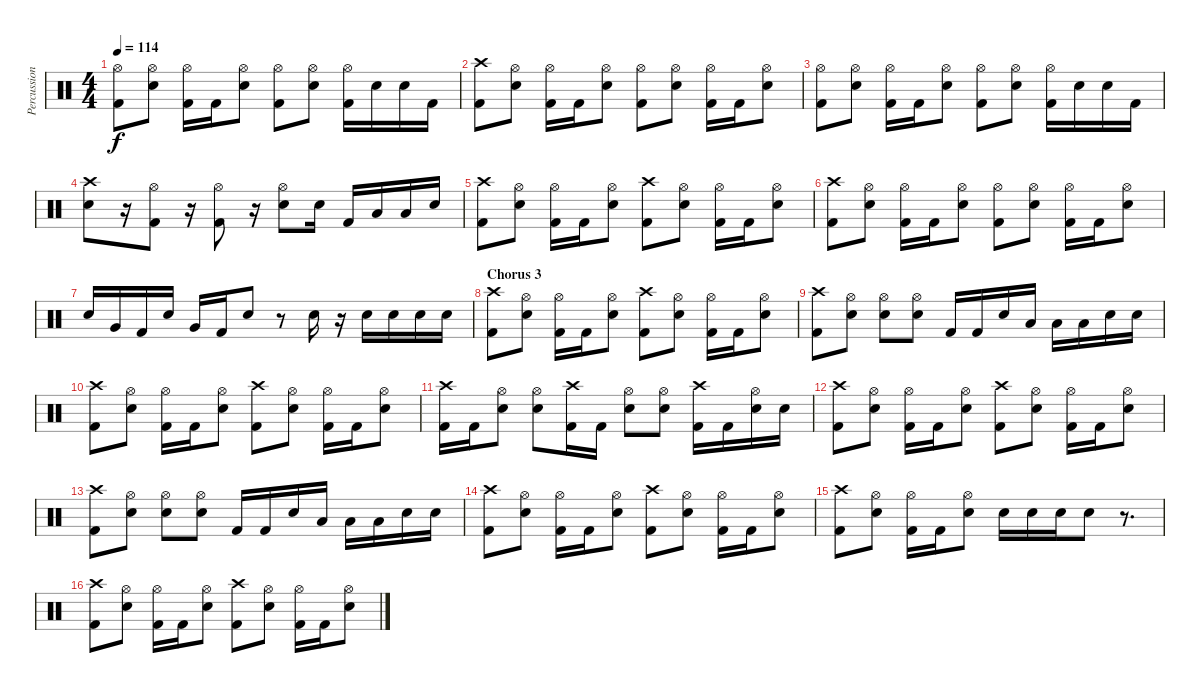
\track ("Percussion" "Percussion") {instrument percussion}
\staff {score}
\articulation defaults
\ts (4 4)
\tempo 114
\clef neutral
\ks c
("Hi-Hat (open)" "Kick (hit) 2").8{dy f} ("Hi-Hat (open)" "Electric Snare (hit)").8 ("Hi-Hat (open)" "Kick (hit) 2").16 "Kick (hit) 2".16 ("Hi-Hat (open)" "Electric Snare (hit)").8 ("Hi-Hat (open)" "Kick (hit) 2").8 ("Hi-Hat (open)" "Electric Snare (hit)").8 ("Hi-Hat (open)" "Kick (hit) 2").16 "Electric Snare (hit)".16 "Electric Snare (hit)".16 "Kick (hit) 2".16 |
("Crash high (hit)" "Kick (hit) 2").8 ("Hi-Hat (open)" "Electric Snare (hit)").8 ("Hi-Hat (open)" "Kick (hit) 2").16 "Kick (hit) 2".16 ("Hi-Hat (open)" "Electric Snare (hit)").8 ("Hi-Hat (open)" "Kick (hit) 2").8 ("Hi-Hat (open)" "Electric Snare (hit)").8 ("Hi-Hat (open)" "Kick (hit) 2").16 "Kick (hit) 2".16 ("Hi-Hat (open)" "Electric Snare (hit)").8 |
("Hi-Hat (open)" "Kick (hit) 2").8 ("Hi-Hat (open)" "Electric Snare (hit)").8 ("Hi-Hat (open)" "Kick (hit) 2").16 "Kick (hit) 2".16 ("Hi-Hat (open)" "Electric Snare (hit)").8 ("Hi-Hat (open)" "Kick (hit) 2").8 ("Hi-Hat (open)" "Electric Snare (hit)").8 ("Hi-Hat (open)" "Kick (hit) 2").16 "Electric Snare (hit)".16 "Electric Snare (hit)".16 "Kick (hit) 2".16 |
("Crash high (hit)" "Electric Snare (hit)").8 r.16 ("Hi-Hat (open)" "Kick (hit) 2").8 r.16 ("Hi-Hat (open)" "Kick (hit) 2").8 r.16 ("Hi-Hat (open)" "Electric Snare (hit)").8 "Electric Snare (hit)".16 "Kick (hit) 2".16 "Low Tom (hit)".16 "Low Tom (hit)".16 "Electric Snare (hit)".16 |
("Crash high (hit)" "Kick (hit) 2").8 ("Hi-Hat (open)" "Electric Snare (hit)").8 ("Hi-Hat (open)" "Kick (hit) 2").16 "Kick (hit) 2".16 ("Hi-Hat (open)" "Electric Snare (hit)").8 ("Crash high (hit)" "Kick (hit) 2").8 ("Hi-Hat (open)" "Electric Snare (hit)").8 ("Hi-Hat (open)" "Kick (hit) 2").16 "Kick (hit) 2".16 ("Hi-Hat (open)" "Electric Snare (hit)").8 |
("Crash high (hit)" "Kick (hit) 2").8 ("Hi-Hat (open)" "Electric Snare (hit)").8 ("Hi-Hat (open)" "Kick (hit) 2").16 "Kick (hit) 2".16 ("Hi-Hat (open)" "Electric Snare (hit)").8 ("Hi-Hat (open)" "Kick (hit) 2").8 ("Hi-Hat (open)" "Electric Snare (hit)").8 ("Hi-Hat (open)" "Kick (hit) 2").16 "Kick (hit) 2".16 ("Hi-Hat (open)" "Electric Snare (hit)").8 |
"Electric Snare (hit)".16 "Very Low Tom (hit)".16 "Kick (hit) 2".16 "Electric Snare (hit)".16 "Very Low Tom (hit)".16 "Kick (hit) 2".16 "Electric Snare (hit)".8 r.8 "Electric Snare (hit)".16 r.16 "Electric Snare (hit)".16 "Electric Snare (hit)".16 "Electric Snare (hit)".16 "Electric Snare (hit)".16 |
\section ("" "Chorus 3")
("Crash high (hit)" "Kick (hit) 2").8 ("Hi-Hat (open)" "Electric Snare (hit)").8 ("Hi-Hat (open)" "Kick (hit) 2").16 "Kick (hit) 2".16 ("Hi-Hat (open)" "Electric Snare (hit)").8 ("Crash high (hit)" "Kick (hit) 2").8 ("Hi-Hat (open)" "Electric Snare (hit)").8 ("Hi-Hat (open)" "Kick (hit) 2").16 "Kick (hit) 2".16 ("Hi-Hat (open)" "Electric Snare (hit)").8 |
("Crash high (hit)" "Kick (hit) 2").8 ("Hi-Hat (open)" "Electric Snare (hit)").8 ("Hi-Hat (open)" "Electric Snare (hit)").8 ("Hi-Hat (open)" "Electric Snare (hit)").8 "Kick (hit) 2".16 "Kick (hit) 2".16 "Electric Snare (hit)".16 "Low Tom (hit)".16 "Low Tom (hit)".16 "Low Tom (hit)".16 "Electric Snare (hit)".16 "Electric Snare (hit)".16 |
("Crash high (hit)" "Kick (hit) 2").8 ("Hi-Hat (open)" "Electric Snare (hit)").8 ("Hi-Hat (open)" "Kick (hit) 2").16 "Kick (hit) 2".16 ("Hi-Hat (open)" "Electric Snare (hit)").8 ("Crash high (hit)" "Kick (hit) 2").8 ("Hi-Hat (open)" "Electric Snare (hit)").8 ("Hi-Hat (open)" "Kick (hit) 2").16 "Kick (hit) 2".16 ("Hi-Hat (open)" "Electric Snare (hit)").8 |
("Crash high (hit)" "Kick (hit) 2").16 "Kick (hit) 2".16 ("Hi-Hat (open)" "Electric Snare (hit)").8 ("Hi-Hat (open)" "Electric Snare (hit)").8 ("Crash high (hit)" "Kick (hit) 2").16 "Kick (hit) 2".16 ("Hi-Hat (open)" "Electric Snare (hit)").8 ("Hi-Hat (open)" "Electric Snare (hit)").8 ("Crash high (hit)" "Kick (hit) 2").16 "Kick (hit) 2".16 ("Hi-Hat (open)" "Electric Snare (hit)").16 "Electric Snare (hit)".16 |
("Crash high (hit)" "Kick (hit) 2").8 ("Hi-Hat (open)" "Electric Snare (hit)").8 ("Hi-Hat (open)" "Kick (hit) 2").16 "Kick (hit) 2".16 ("Hi-Hat (open)" "Electric Snare (hit)").8 ("Crash high (hit)" "Kick (hit) 2").8 ("Hi-Hat (open)" "Electric Snare (hit)").8 ("Hi-Hat (open)" "Kick (hit) 2").16 "Kick (hit) 2".16 ("Hi-Hat (open)" "Electric Snare (hit)").8 |
("Crash high (hit)" "Kick (hit) 2").8 ("Hi-Hat (open)" "Electric Snare (hit)").8 ("Hi-Hat (open)" "Electric Snare (hit)").8 ("Hi-Hat (open)" "Electric Snare (hit)").8 "Kick (hit) 2".16 "Kick (hit) 2".16 "Electric Snare (hit)".16 "Low Tom (hit)".16 "Low Tom (hit)".16 "Low Tom (hit)".16 "Electric Snare (hit)".16 "Electric Snare (hit)".16 |
("Crash high (hit)" "Kick (hit) 2").8 ("Hi-Hat (open)" "Electric Snare (hit)").8 ("Hi-Hat (open)" "Kick (hit) 2").16 "Kick (hit) 2".16 ("Hi-Hat (open)" "Electric Snare (hit)").8 ("Crash high (hit)" "Kick (hit) 2").8 ("Hi-Hat (open)" "Electric Snare (hit)").8 ("Hi-Hat (open)" "Kick (hit) 2").16 "Kick (hit) 2".16 ("Hi-Hat (open)" "Electric Snare (hit)").8 |
("Crash high (hit)" "Kick (hit) 2").8 ("Hi-Hat (open)" "Electric Snare (hit)").8 ("Hi-Hat (open)" "Kick (hit) 2").16 "Kick (hit) 2".16 ("Hi-Hat (open)" "Electric Snare (hit)").8 "Electric Snare (hit)".16 "Electric Snare (hit)".16 "Electric Snare (hit)".16 "Electric Snare (hit)".8 r.8{d} |
("Crash high (hit)" "Kick (hit) 2").8 ("Hi-Hat (open)" "Electric Snare (hit)").8 ("Hi-Hat (open)" "Kick (hit) 2").16 "Kick (hit) 2".16 ("Hi-Hat (open)" "Electric Snare (hit)").8 ("Crash high (hit)" "Kick (hit) 2").8 ("Hi-Hat (open)" "Electric Snare (hit)").8 ("Hi-Hat (open)" "Kick (hit) 2").16 "Kick (hit) 2".16 ("Hi-Hat (open)" "Electric Snare (hit)").8
